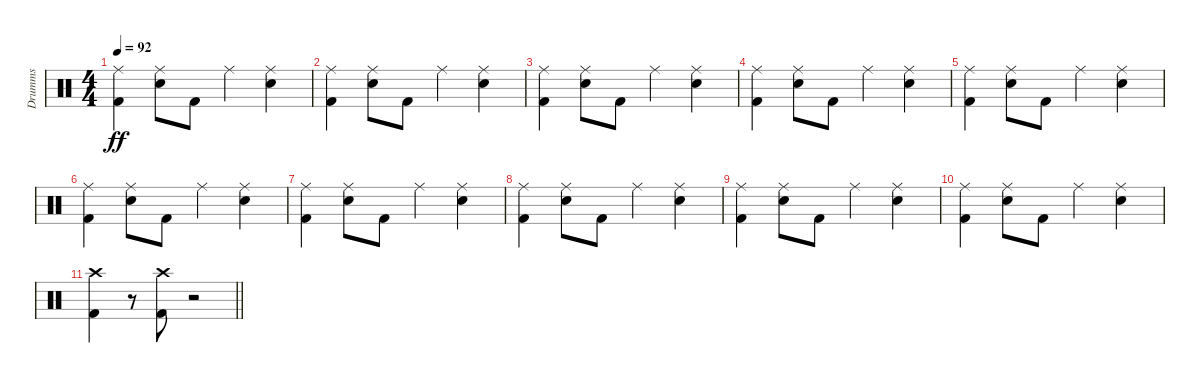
\track ("Drumms" "Drumms") {instrument percussion}
\staff {score}
\articulation defaults
\ts (4 4)
\tempo 92
\clef neutral
\ks c
("Ride (middle)" "Kick (hit) 2").4{dy ff} ("Ride (middle)" "Electric Snare (hit)").8 "Kick (hit) 2".8 "Ride (middle)".4 ("Ride (middle)" "Electric Snare (hit)").4 |
("Ride (middle)" "Kick (hit) 2").4 ("Ride (middle)" "Electric Snare (hit)").8 "Kick (hit) 2".8 "Ride (middle)".4 ("Ride (middle)" "Electric Snare (hit)").4 |
("Ride (middle)" "Kick (hit) 2").4 ("Ride (middle)" "Electric Snare (hit)").8 "Kick (hit) 2".8 "Ride (middle)".4 ("Ride (middle)" "Electric Snare (hit)").4 |
("Ride (middle)" "Kick (hit) 2").4 ("Ride (middle)" "Electric Snare (hit)").8 "Kick (hit) 2".8 "Ride (middle)".4 ("Ride (middle)" "Electric Snare (hit)").4 |
("Ride (middle)" "Kick (hit) 2").4 ("Ride (middle)" "Electric Snare (hit)").8 "Kick (hit) 2".8 "Ride (middle)".4 ("Ride (middle)" "Electric Snare (hit)").4 |
("Ride (middle)" "Kick (hit) 2").4 ("Ride (middle)" "Electric Snare (hit)").8 "Kick (hit) 2".8 "Ride (middle)".4 ("Ride (middle)" "Electric Snare (hit)").4 |
("Ride (middle)" "Kick (hit) 2").4 ("Ride (middle)" "Electric Snare (hit)").8 "Kick (hit) 2".8 "Ride (middle)".4 ("Ride (middle)" "Electric Snare (hit)").4 |
("Ride (middle)" "Kick (hit) 2").4 ("Ride (middle)" "Electric Snare (hit)").8 "Kick (hit) 2".8 "Ride (middle)".4 ("Ride (middle)" "Electric Snare (hit)").4 |
("Ride (middle)" "Kick (hit) 2").4 ("Ride (middle)" "Electric Snare (hit)").8 "Kick (hit) 2".8 "Ride (middle)".4 ("Ride (middle)" "Electric Snare (hit)").4 |
("Ride (middle)" "Kick (hit) 2").4 ("Ride (middle)" "Electric Snare (hit)").8 "Kick (hit) 2".8 "Ride (middle)".4 ("Ride (middle)" "Electric Snare (hit)").4 |
\barLineRight lightlight
("Crash high (hit)" "Kick (hit) 2").4 r.8 ("Crash high (hit)" "Kick (hit) 2").8 r.2
